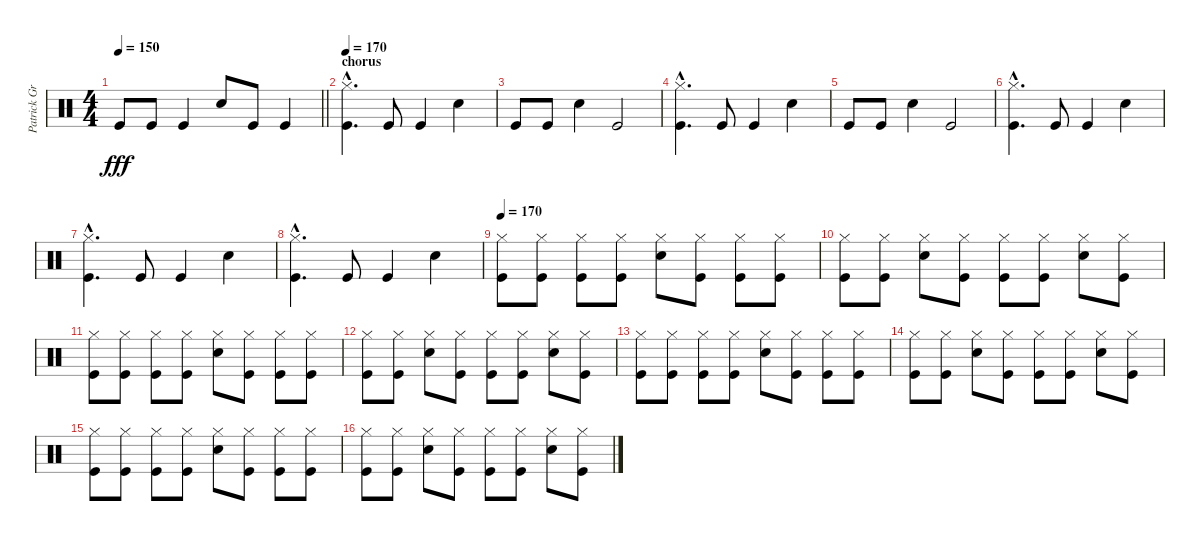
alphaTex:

\track ("Patrick Grün - Drums" "Patrick Gr") {instrument percussion}
\staff {score}
\articulation defaults
\ts (4 4)
\tempo 150
\clef neutral
\barLineRight lightlight
\ks c "Kick (hit)".8{dy fff} "Kick (hit)".8 "Kick (hit)".4 "Snare (hit) 2".8 "Kick (hit)".8 "Kick (hit)".4
|
\section ("" "chorus")
\tempo 170
("Kick (hit)"{hac} "Hi-Hat (closed)"{hac}).4{d} "Kick (hit)".8 "Kick (hit)".4 "Snare (hit) 2".4 |
"Kick (hit)".8 "Kick (hit)".8 "Snare (hit) 2".4 "Kick (hit)".2 |
("Kick (hit)"{hac} "Hi-Hat (closed)"{hac}).4{d} "Kick (hit)".8 "Kick (hit)".4 "Snare (hit) 2".4 |
"Kick (hit)".8 "Kick (hit)".8 "Snare (hit) 2".4 "Kick (hit)".2 |
("Kick (hit)"{hac} "Hi-Hat (closed)"{hac}).4{d} "Kick (hit)".8 "Kick (hit)".4 "Snare (hit) 2".4 |
("Kick (hit)"{hac} "Hi-Hat (closed)"{hac}).4{d} "Kick (hit)".8 "Kick (hit)".4 "Snare (hit) 2".4 |
("Kick (hit)"{hac} "Hi-Hat (closed)"{hac}).4{d} "Kick (hit)".8 "Kick (hit)".4 "Snare (hit) 2".4 |
\tempo 170
("Kick (hit)" "Hi-Hat (closed)").8 ("Kick (hit)" "Hi-Hat (closed)").8 ("Kick (hit)" "Hi-Hat (closed)").8 ("Kick (hit)" "Hi-Hat (closed)").8 ("Snare (hit) 2" "Hi-Hat (closed)").8 ("Kick (hit)" "Hi-Hat (closed)").8 ("Kick (hit)" "Hi-Hat (closed)").8 ("Kick (hit)" "Hi-Hat (closed)").8 |
("Kick (hit)" "Hi-Hat (closed)").8 ("Kick (hit)" "Hi-Hat (closed)").8 ("Snare (hit) 2" "Hi-Hat (closed)").8 ("Kick (hit)" "Hi-Hat (closed)").8 ("Kick (hit)" "Hi-Hat (closed)").8 ("Kick (hit)" "Hi-Hat (closed)").8 ("Snare (hit) 2" "Hi-Hat (closed)").8 ("Kick (hit)" "Hi-Hat (closed)").8 |
("Kick (hit)" "Hi-Hat (closed)").8 ("Kick (hit)" "Hi-Hat (closed)").8 ("Kick (hit)" "Hi-Hat (closed)").8 ("Kick (hit)" "Hi-Hat (closed)").8 ("Snare (hit) 2" "Hi-Hat (closed)").8 ("Kick (hit)" "Hi-Hat (closed)").8 ("Kick (hit)" "Hi-Hat (closed)").8 ("Kick (hit)" "Hi-Hat (closed)").8 |
("Kick (hit)" "Hi-Hat (closed)").8 ("Kick (hit)" "Hi-Hat (closed)").8 ("Snare (hit) 2" "Hi-Hat (closed)").8 ("Kick (hit)" "Hi-Hat (closed)").8 ("Kick (hit)" "Hi-Hat (closed)").8 ("Kick (hit)" "Hi-Hat (closed)").8 ("Snare (hit) 2" "Hi-Hat (closed)").8 ("Kick (hit)" "Hi-Hat (closed)").8 |
("Kick (hit)" "Hi-Hat (closed)").8 ("Kick (hit)" "Hi-Hat (closed)").8 ("Kick (hit)" "Hi-Hat (closed)").8 ("Kick (hit)" "Hi-Hat (closed)").8 ("Snare (hit) 2" "Hi-Hat (closed)").8 ("Kick (hit)" "Hi-Hat (closed)").8 ("Kick (hit)" "Hi-Hat (closed)").8 ("Kick (hit)" "Hi-Hat (closed)").8 |
("Kick (hit)" "Hi-Hat (closed)").8 ("Kick (hit)" "Hi-Hat (closed)").8 ("Snare (hit) 2" "Hi-Hat (closed)").8 ("Kick (hit)" "Hi-Hat (closed)").8 ("Kick (hit)" "Hi-Hat (closed)").8 ("Kick (hit)" "Hi-Hat (closed)").8 ("Snare (hit) 2" "Hi-Hat (closed)").8 ("Kick (hit)" "Hi-Hat (closed)").8 |
("Kick (hit)" "Hi-Hat (closed)").8 ("Kick (hit)" "Hi-Hat (closed)").8 ("Kick (hit)" "Hi-Hat (closed)").8 ("Kick (hit)" "Hi-Hat (closed)").8 ("Snare (hit) 2" "Hi-Hat (closed)").8 ("Kick (hit)" "Hi-Hat (closed)").8 ("Kick (hit)" "Hi-Hat (closed)").8 ("Kick (hit)" "Hi-Hat (closed)").8 |
("Kick (hit)" "Hi-Hat (closed)").8 ("Kick (hit)" "Hi-Hat (closed)").8 ("Snare (hit) 2" "Hi-Hat (closed)").8 ("Kick (hit)" "Hi-Hat (closed)").8 ("Kick (hit)" "Hi-Hat (closed)").8 ("Kick (hit)" "Hi-Hat (closed)").8 ("Snare (hit) 2" "Hi-Hat (closed)").8 ("Kick (hit)" "Hi-Hat (closed)").8
